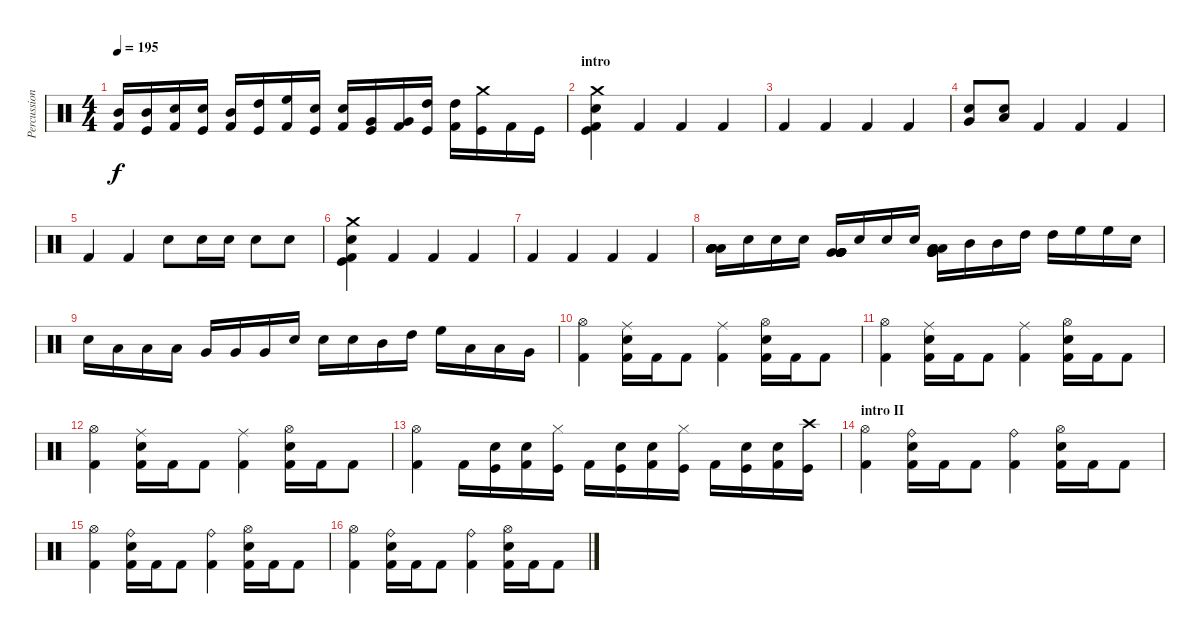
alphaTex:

\track ("Percussion" "Percussion") {instrument percussion}
\staff {score}
\articulation defaults
\ts (4 4)
\tempo 195
\clef neutral
\ks c
("Mid Tom (hit)" "Kick (hit) 2").16{dy f} ("Mid Tom (hit)" "Kick (hit)").16 ("Electric Snare (hit)" "Kick (hit) 2").16 ("Electric Snare (hit)" "Kick (hit)").16 ("Mid Tom (hit)" "Kick (hit) 2").16 ("High Tom (hit)" "Kick (hit)").16 ("High Floor Tom (hit)" "Kick (hit) 2").16 ("Electric Snare (hit)" "Kick (hit)").16 ("Snare (hit) 2" "Kick (hit) 2").16 ("Very Low Tom (hit)" "Kick (hit)").16 ("Very Low Tom (hit)" "Kick (hit) 2").16 ("High Tom (hit)" "Kick (hit)").16 ("High Tom (hit)" "Kick (hit) 2").16 ("Crash medium (hit)" "Kick (hit)").16 "Kick (hit) 2".16 "Kick (hit)".16 |
\section ("" "intro")
("Crash medium (hit)" "Electric Snare (hit)" "Kick (hit)" "Kick (hit) 2").4 "Kick (hit) 2".4 "Kick (hit) 2".4 "Kick (hit) 2".4 |
"Kick (hit) 2".4 "Kick (hit) 2".4 "Kick (hit) 2".4 "Kick (hit) 2".4 |
("Very Low Tom (hit)" "Electric Snare (hit)").8 ("Electric Snare (hit)" "Low Tom (hit)").8 "Kick (hit) 2".4 "Kick (hit) 2".4 "Kick (hit) 2".4 |
"Kick (hit) 2".4 "Kick (hit) 2".4 "Electric Snare (hit)".8 "Electric Snare (hit)".16 "Electric Snare (hit)".16 "Electric Snare (hit)".8 "Electric Snare (hit)".8 |
("Crash medium (hit)" "Electric Snare (hit)" "Kick (hit)" "Kick (hit) 2").4 "Kick (hit) 2".4 "Kick (hit) 2".4 "Kick (hit) 2".4 |
"Kick (hit) 2".4 "Kick (hit) 2".4 "Kick (hit) 2".4 "Kick (hit) 2".4 |
("Low Floor Tom (hit)" "Low Floor Tom (hit)" "Low Floor Tom (hit)" "Low Floor Tom (hit)" "Low Floor Tom (hit)" "Low Floor Tom (hit)").16 "Electric Snare (hit)".16 "Electric Snare (hit)".16 "Electric Snare (hit)".16 ("Very Low Tom (hit)" "Very Low Tom (hit)" "Very Low Tom (hit)" "Very Low Tom (hit)" "Very Low Tom (hit)" "Very Low Tom (hit)").16 "Electric Snare (hit)".16 "Electric Snare (hit)".16 "Electric Snare (hit)".16 ("Very Low Tom (hit)" "Very Low Tom (hit)" "Very Low Tom (hit)" "Low Floor Tom (hit)" "Low Floor Tom (hit)" "Low Floor Tom (hit)").16 "Mid Tom (hit)".16 "Mid Tom (hit)".16 "High Tom (hit)".16 "High Tom (hit)".16 "High Floor Tom (hit)".16 "High Floor Tom (hit)".16 "Snare (hit) 2".16 |
"Snare (hit) 2".16 "Low Floor Tom (hit)".16 "Low Floor Tom (hit)".16 "Low Floor Tom (hit)".16 "Very Low Tom (hit)".16 "Very Low Tom (hit)".16 "Very Low Tom (hit)".16 "Electric Snare (hit)".16 "Electric Snare (hit)".16 "Electric Snare (hit)".16 "Mid Tom (hit)".16 "High Tom (hit)".16 "High Floor Tom (hit)".16 "Low Tom (hit)".16 "Low Floor Tom (hit)".16 "Very Low Tom (hit)".16 |
("Hi-Hat (open)" "Kick (hit) 2").4 ("Ride (middle)" "Electric Snare (hit)" "Kick (hit) 2").16 "Kick (hit) 2".16 "Kick (hit) 2".8 ("Ride (middle)" "Kick (hit) 2").4 ("Hi-Hat (open)" "Electric Snare (hit)" "Kick (hit) 2").16 "Kick (hit) 2".16 "Kick (hit) 2".8 |
("Hi-Hat (open)" "Kick (hit) 2").4 ("Ride (middle)" "Electric Snare (hit)" "Kick (hit) 2").16 "Kick (hit) 2".16 "Kick (hit) 2".8 ("Ride (middle)" "Kick (hit) 2").4 ("Hi-Hat (open)" "Electric Snare (hit)" "Kick (hit) 2").16 "Kick (hit) 2".16 "Kick (hit) 2".8 |
("Hi-Hat (open)" "Kick (hit) 2").4 ("Ride (middle)" "Electric Snare (hit)" "Kick (hit) 2").16 "Kick (hit) 2".16 "Kick (hit) 2".8 ("Ride (middle)" "Kick (hit) 2").4 ("Hi-Hat (open)" "Electric Snare (hit)" "Kick (hit) 2").16 "Kick (hit) 2".16 "Kick (hit) 2".8 |
("Hi-Hat (open)" "Kick (hit) 2").4 "Kick (hit) 2".16 ("Electric Snare (hit)" "Kick (hit)").16 ("Electric Snare (hit)" "Kick (hit) 2").16 ("Hi-Hat (closed)" "Kick (hit)").16 "Kick (hit) 2".16 ("Electric Snare (hit)" "Kick (hit)").16 ("Electric Snare (hit)" "Kick (hit) 2").16 ("Hi-Hat (closed)" "Kick (hit)").16 "Kick (hit) 2".16 ("Electric Snare (hit)" "Kick (hit)").16 ("Electric Snare (hit)" "Kick (hit) 2").16 ("Crash high (hit)" "Kick (hit)").16 |
\section ("" "intro II")
("Hi-Hat (open)" "Kick (hit) 2").4 ("Ride (bell)" "Electric Snare (hit)" "Kick (hit) 2").16 "Kick (hit) 2".16 "Kick (hit) 2".8 ("Ride (bell)" "Kick (hit) 2").4 ("Hi-Hat (open)" "Electric Snare (hit)" "Kick (hit) 2").16 "Kick (hit) 2".16 "Kick (hit) 2".8 |
("Hi-Hat (open)" "Kick (hit) 2").4 ("Ride (bell)" "Electric Snare (hit)" "Kick (hit) 2").16 "Kick (hit) 2".16 "Kick (hit) 2".8 ("Ride (bell)" "Kick (hit) 2").4 ("Hi-Hat (open)" "Electric Snare (hit)" "Kick (hit) 2").16 "Kick (hit) 2".16 "Kick (hit) 2".8 |
("Hi-Hat (open)" "Kick (hit) 2").4 ("Ride (bell)" "Electric Snare (hit)" "Kick (hit) 2").16 "Kick (hit) 2".16 "Kick (hit) 2".8 ("Ride (bell)" "Kick (hit) 2").4 ("Hi-Hat (open)" "Electric Snare (hit)" "Kick (hit) 2").16 "Kick (hit) 2".16 "Kick (hit) 2".8
